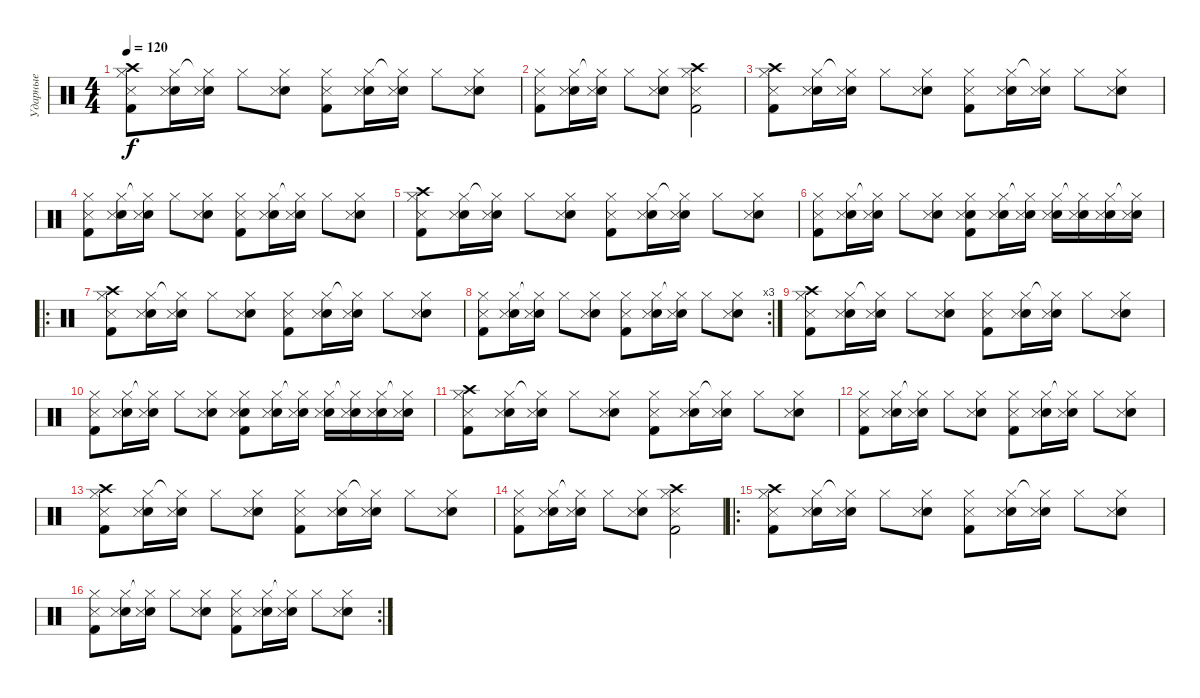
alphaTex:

\track ("Ударные" "Ударные") {instrument percussion}
\staff {score}
\articulation defaults
\ts (4 4)
\tempo 120
\clef neutral
\ks c
("Crash high (hit)" "Hi-Hat (closed)" "Kick (hit) 2" "Snare (side stick) 3").8{dy f} ("Hi-Hat (closed)" "Snare (hit) 2" "Snare (side stick) 3").16 ("Hi-Hat (closed)"{t} "Snare (hit) 2" "Snare (side stick) 3").16 "Hi-Hat (closed)".8 ("Hi-Hat (closed)" "Snare (hit) 2" "Snare (side stick) 3").8 ("Hi-Hat (closed)" "Kick (hit) 2" "Snare (side stick) 3").8 ("Hi-Hat (closed)" "Snare (hit) 2" "Snare (side stick) 3").16 ("Hi-Hat (closed)"{t} "Snare (hit) 2" "Snare (side stick) 3").16 "Hi-Hat (closed)".8 ("Hi-Hat (closed)" "Snare (hit) 2" "Snare (side stick) 3").8 |
("Hi-Hat (closed)" "Kick (hit) 2" "Snare (side stick) 3").8 ("Hi-Hat (closed)" "Snare (hit) 2" "Snare (side stick) 3").16 ("Hi-Hat (closed)"{t} "Snare (hit) 2" "Snare (side stick) 3").16 "Hi-Hat (closed)".8 ("Hi-Hat (closed)" "Snare (hit) 2" "Snare (side stick) 3").8 ("Crash high (hit)" "Hi-Hat (closed)" "Kick (hit) 2" "Snare (side stick) 3").2 |
("Crash high (hit)" "Hi-Hat (closed)" "Kick (hit) 2" "Snare (side stick) 3").8 ("Hi-Hat (closed)" "Snare (hit) 2" "Snare (side stick) 3").16 ("Hi-Hat (closed)"{t} "Snare (hit) 2" "Snare (side stick) 3").16 "Hi-Hat (closed)".8 ("Hi-Hat (closed)" "Snare (hit) 2" "Snare (side stick) 3").8 ("Hi-Hat (closed)" "Kick (hit) 2" "Snare (side stick) 3").8 ("Hi-Hat (closed)" "Snare (hit) 2" "Snare (side stick) 3").16 ("Hi-Hat (closed)"{t} "Snare (hit) 2" "Snare (side stick) 3").16 "Hi-Hat (closed)".8 ("Hi-Hat (closed)" "Snare (hit) 2" "Snare (side stick) 3").8 |
("Hi-Hat (closed)" "Kick (hit) 2" "Snare (side stick) 3").8 ("Hi-Hat (closed)" "Snare (hit) 2" "Snare (side stick) 3").16 ("Hi-Hat (closed)"{t} "Snare (hit) 2" "Snare (side stick) 3").16 "Hi-Hat (closed)".8 ("Hi-Hat (closed)" "Snare (hit) 2" "Snare (side stick) 3").8 ("Hi-Hat (closed)" "Kick (hit) 2" "Snare (side stick) 3").8 ("Hi-Hat (closed)" "Snare (hit) 2" "Snare (side stick) 3").16 ("Hi-Hat (closed)"{t} "Snare (hit) 2" "Snare (side stick) 3").16 "Hi-Hat (closed)".8 ("Hi-Hat (closed)" "Snare (hit) 2" "Snare (side stick) 3").8 |
("Crash high (hit)" "Hi-Hat (closed)" "Kick (hit) 2" "Snare (side stick) 3").8 ("Hi-Hat (closed)" "Snare (hit) 2" "Snare (side stick) 3").16 ("Hi-Hat (closed)"{t} "Snare (hit) 2" "Snare (side stick) 3").16 "Hi-Hat (closed)".8 ("Hi-Hat (closed)" "Snare (hit) 2" "Snare (side stick) 3").8 ("Hi-Hat (closed)" "Kick (hit) 2" "Snare (side stick) 3").8 ("Hi-Hat (closed)" "Snare (hit) 2" "Snare (side stick) 3").16 ("Hi-Hat (closed)"{t} "Snare (hit) 2" "Snare (side stick) 3").16 "Hi-Hat (closed)".8 ("Hi-Hat (closed)" "Snare (hit) 2" "Snare (side stick) 3").8 |
("Hi-Hat (closed)" "Kick (hit) 2" "Snare (side stick) 3").8 ("Hi-Hat (closed)" "Snare (hit) 2" "Snare (side stick) 3").16 ("Hi-Hat (closed)"{t} "Snare (hit) 2" "Snare (side stick) 3").16 "Hi-Hat (closed)".8 ("Hi-Hat (closed)" "Snare (hit) 2" "Snare (side stick) 3").8 ("Hi-Hat (closed)" "Kick (hit) 2" "Snare (hit) 2" "Snare (side stick) 3").8 ("Hi-Hat (closed)" "Snare (hit) 2" "Snare (side stick) 3").16 ("Hi-Hat (closed)"{t} "Snare (hit) 2" "Snare (side stick) 3").16 ("Hi-Hat (closed)" "Snare (hit) 2" "Snare (side stick) 3").16 ("Hi-Hat (closed)"{t} "Snare (hit) 2" "Snare (side stick) 3").16 ("Hi-Hat (closed)" "Snare (hit) 2" "Snare (side stick) 3").16 ("Hi-Hat (closed)"{t} "Snare (hit) 2" "Snare (side stick) 3").16 |
\ro
("Crash high (hit)" "Hi-Hat (closed)" "Kick (hit) 2" "Snare (side stick) 3").8 ("Hi-Hat (closed)" "Snare (hit) 2" "Snare (side stick) 3").16 ("Hi-Hat (closed)"{t} "Snare (hit) 2" "Snare (side stick) 3").16 "Hi-Hat (closed)".8 ("Hi-Hat (closed)" "Snare (hit) 2" "Snare (side stick) 3").8 ("Hi-Hat (closed)" "Kick (hit) 2" "Snare (side stick) 3").8 ("Hi-Hat (closed)" "Snare (hit) 2" "Snare (side stick) 3").16 ("Hi-Hat (closed)"{t} "Snare (hit) 2" "Snare (side stick) 3").16 "Hi-Hat (closed)".8 ("Hi-Hat (closed)" "Snare (hit) 2" "Snare (side stick) 3").8 |
\rc 3
("Hi-Hat (closed)" "Kick (hit) 2" "Snare (side stick) 3").8 ("Hi-Hat (closed)" "Snare (hit) 2" "Snare (side stick) 3").16 ("Hi-Hat (closed)"{t} "Snare (hit) 2" "Snare (side stick) 3").16 "Hi-Hat (closed)".8 ("Hi-Hat (closed)" "Snare (hit) 2" "Snare (side stick) 3").8 ("Hi-Hat (closed)" "Kick (hit) 2" "Snare (side stick) 3").8 ("Hi-Hat (closed)" "Snare (hit) 2" "Snare (side stick) 3").16 ("Hi-Hat (closed)"{t} "Snare (hit) 2" "Snare (side stick) 3").16 "Hi-Hat (closed)".8 ("Hi-Hat (closed)" "Snare (hit) 2" "Snare (side stick) 3").8 |
("Crash high (hit)" "Hi-Hat (closed)" "Kick (hit) 2" "Snare (side stick) 3").8 ("Hi-Hat (closed)" "Snare (hit) 2" "Snare (side stick) 3").16 ("Hi-Hat (closed)"{t} "Snare (hit) 2" "Snare (side stick) 3").16 "Hi-Hat (closed)".8 ("Hi-Hat (closed)" "Snare (hit) 2" "Snare (side stick) 3").8 ("Hi-Hat (closed)" "Kick (hit) 2" "Snare (side stick) 3").8 ("Hi-Hat (closed)" "Snare (hit) 2" "Snare (side stick) 3").16 ("Hi-Hat (closed)"{t} "Snare (hit) 2" "Snare (side stick) 3").16 "Hi-Hat (closed)".8 ("Hi-Hat (closed)" "Snare (hit) 2" "Snare (side stick) 3").8 |
("Hi-Hat (closed)" "Kick (hit) 2" "Snare (side stick) 3").8 ("Hi-Hat (closed)" "Snare (hit) 2" "Snare (side stick) 3").16 ("Hi-Hat (closed)"{t} "Snare (hit) 2" "Snare (side stick) 3").16 "Hi-Hat (closed)".8 ("Hi-Hat (closed)" "Snare (hit) 2" "Snare (side stick) 3").8 ("Hi-Hat (closed)" "Kick (hit) 2" "Snare (hit) 2" "Snare (side stick) 3").8 ("Hi-Hat (closed)" "Snare (hit) 2" "Snare (side stick) 3").16 ("Hi-Hat (closed)"{t} "Snare (hit) 2" "Snare (side stick) 3").16 ("Hi-Hat (closed)" "Snare (hit) 2" "Snare (side stick) 3").16 ("Hi-Hat (closed)"{t} "Snare (hit) 2" "Snare (side stick) 3").16 ("Hi-Hat (closed)" "Snare (hit) 2" "Snare (side stick) 3").16 ("Hi-Hat (closed)"{t} "Snare (hit) 2" "Snare (side stick) 3").16 |
("Crash high (hit)" "Hi-Hat (closed)" "Kick (hit) 2" "Snare (side stick) 3").8 ("Hi-Hat (closed)" "Snare (hit) 2" "Snare (side stick) 3").16 ("Hi-Hat (closed)"{t} "Snare (hit) 2" "Snare (side stick) 3").16 "Hi-Hat (closed)".8 ("Hi-Hat (closed)" "Snare (hit) 2" "Snare (side stick) 3").8 ("Hi-Hat (closed)" "Kick (hit) 2" "Snare (side stick) 3").8 ("Hi-Hat (closed)" "Snare (hit) 2" "Snare (side stick) 3").16 ("Hi-Hat (closed)"{t} "Snare (hit) 2" "Snare (side stick) 3").16 "Hi-Hat (closed)".8 ("Hi-Hat (closed)" "Snare (hit) 2" "Snare (side stick) 3").8 |
("Hi-Hat (closed)" "Kick (hit) 2" "Snare (side stick) 3").8 ("Hi-Hat (closed)" "Snare (hit) 2" "Snare (side stick) 3").16 ("Hi-Hat (closed)"{t} "Snare (hit) 2" "Snare (side stick) 3").16 "Hi-Hat (closed)".8 ("Hi-Hat (closed)" "Snare (hit) 2" "Snare (side stick) 3").8 ("Hi-Hat (closed)" "Kick (hit) 2" "Snare (side stick) 3").8 ("Hi-Hat (closed)" "Snare (hit) 2" "Snare (side stick) 3").16 ("Hi-Hat (closed)"{t} "Snare (hit) 2" "Snare (side stick) 3").16 "Hi-Hat (closed)".8 ("Hi-Hat (closed)" "Snare (hit) 2" "Snare (side stick) 3").8 |
("Crash high (hit)" "Hi-Hat (closed)" "Kick (hit) 2" "Snare (side stick) 3").8 ("Hi-Hat (closed)" "Snare (hit) 2" "Snare (side stick) 3").16 ("Hi-Hat (closed)"{t} "Snare (hit) 2" "Snare (side stick) 3").16 "Hi-Hat (closed)".8 ("Hi-Hat (closed)" "Snare (hit) 2" "Snare (side stick) 3").8 ("Hi-Hat (closed)" "Kick (hit) 2" "Snare (side stick) 3").8 ("Hi-Hat (closed)" "Snare (hit) 2" "Snare (side stick) 3").16 ("Hi-Hat (closed)"{t} "Snare (hit) 2" "Snare (side stick) 3").16 "Hi-Hat (closed)".8 ("Hi-Hat (closed)" "Snare (hit) 2" "Snare (side stick) 3").8 |
("Hi-Hat (closed)" "Kick (hit) 2" "Snare (side stick) 3").8 ("Hi-Hat (closed)" "Snare (hit) 2" "Snare (side stick) 3").16 ("Hi-Hat (closed)"{t} "Snare (hit) 2" "Snare (side stick) 3").16 "Hi-Hat (closed)".8 ("Hi-Hat (closed)" "Snare (hit) 2" "Snare (side stick) 3").8 ("Crash high (hit)" "Hi-Hat (closed)" "Kick (hit) 2" "Snare (side stick) 3").2 |
\ro
("Crash high (hit)" "Hi-Hat (closed)" "Kick (hit) 2" "Snare (side stick) 3").8 ("Hi-Hat (closed)" "Snare (hit) 2" "Snare (side stick) 3").16 ("Hi-Hat (closed)"{t} "Snare (hit) 2" "Snare (side stick) 3").16 "Hi-Hat (closed)".8 ("Hi-Hat (closed)" "Snare (hit) 2" "Snare (side stick) 3").8 ("Hi-Hat (closed)" "Kick (hit) 2" "Snare (side stick) 3").8 ("Hi-Hat (closed)" "Snare (hit) 2" "Snare (side stick) 3").16 ("Hi-Hat (closed)"{t} "Snare (hit) 2" "Snare (side stick) 3").16 "Hi-Hat (closed)".8 ("Hi-Hat (closed)" "Snare (hit) 2" "Snare (side stick) 3").8 |
\rc 2
("Hi-Hat (closed)" "Kick (hit) 2" "Snare (side stick) 3").8 ("Hi-Hat (closed)" "Snare (hit) 2" "Snare (side stick) 3").16 ("Hi-Hat (closed)"{t} "Snare (hit) 2" "Snare (side stick) 3").16 "Hi-Hat (closed)".8 ("Hi-Hat (closed)" "Snare (hit) 2" "Snare (side stick) 3").8 ("Hi-Hat (closed)" "Kick (hit) 2" "Snare (side stick) 3").8 ("Hi-Hat (closed)" "Snare (hit) 2" "Snare (side stick) 3").16 ("Hi-Hat (closed)"{t} "Snare (hit) 2" "Snare (side stick) 3").16 "Hi-Hat (closed)".8 ("Hi-Hat (closed)" "Snare (hit) 2" "Snare (side stick) 3").8
